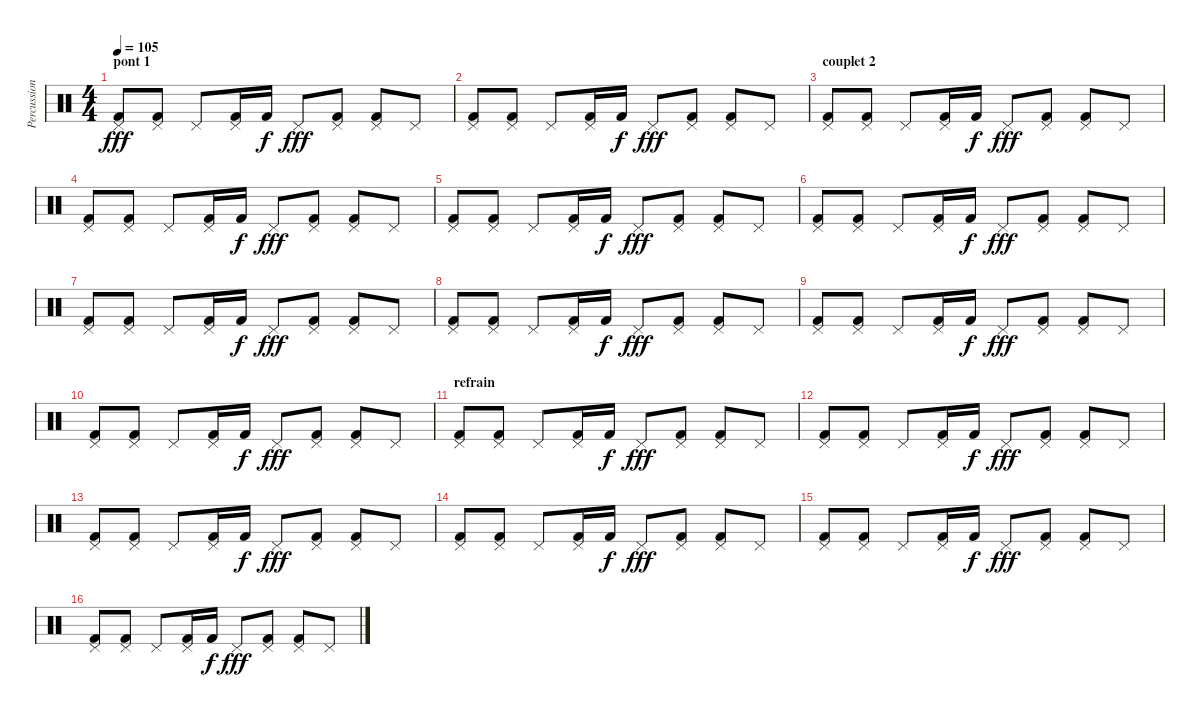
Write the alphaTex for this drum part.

\track ("Percussions" "Percussion") {instrument percussion}
\staff {score}
\articulation defaults
\ts (4 4)
\section ("" "pont 1")
\tempo 105
\clef neutral
\ks c
("Pedal Hi-Hat (hit)" "Kick (hit) 2").8{dy fff} ("Pedal Hi-Hat (hit)" "Kick (hit) 2").8 "Pedal Hi-Hat (hit)".8 ("Pedal Hi-Hat (hit)" "Kick (hit) 2").16 "Kick (hit) 2".16{dy f} "Pedal Hi-Hat (hit)".8{dy fff} ("Pedal Hi-Hat (hit)" "Kick (hit) 2").8 ("Pedal Hi-Hat (hit)" "Kick (hit) 2").8 "Pedal Hi-Hat (hit)".8 |
("Pedal Hi-Hat (hit)" "Kick (hit) 2").8 ("Pedal Hi-Hat (hit)" "Kick (hit) 2").8 "Pedal Hi-Hat (hit)".8 ("Pedal Hi-Hat (hit)" "Kick (hit) 2").16 "Kick (hit) 2".16{dy f} "Pedal Hi-Hat (hit)".8{dy fff} ("Pedal Hi-Hat (hit)" "Kick (hit) 2").8 ("Pedal Hi-Hat (hit)" "Kick (hit) 2").8 "Pedal Hi-Hat (hit)".8 |
\section ("" "couplet 2")
("Pedal Hi-Hat (hit)" "Kick (hit) 2").8 ("Pedal Hi-Hat (hit)" "Kick (hit) 2").8 "Pedal Hi-Hat (hit)".8 ("Pedal Hi-Hat (hit)" "Kick (hit) 2").16 "Kick (hit) 2".16{dy f} "Pedal Hi-Hat (hit)".8{dy fff} ("Pedal Hi-Hat (hit)" "Kick (hit) 2").8 ("Pedal Hi-Hat (hit)" "Kick (hit) 2").8 "Pedal Hi-Hat (hit)".8 |
("Pedal Hi-Hat (hit)" "Kick (hit) 2").8 ("Pedal Hi-Hat (hit)" "Kick (hit) 2").8 "Pedal Hi-Hat (hit)".8 ("Pedal Hi-Hat (hit)" "Kick (hit) 2").16 "Kick (hit) 2".16{dy f} "Pedal Hi-Hat (hit)".8{dy fff} ("Pedal Hi-Hat (hit)" "Kick (hit) 2").8 ("Pedal Hi-Hat (hit)" "Kick (hit) 2").8 "Pedal Hi-Hat (hit)".8 |
("Pedal Hi-Hat (hit)" "Kick (hit) 2").8 ("Pedal Hi-Hat (hit)" "Kick (hit) 2").8 "Pedal Hi-Hat (hit)".8 ("Pedal Hi-Hat (hit)" "Kick (hit) 2").16 "Kick (hit) 2".16{dy f} "Pedal Hi-Hat (hit)".8{dy fff} ("Pedal Hi-Hat (hit)" "Kick (hit) 2").8 ("Pedal Hi-Hat (hit)" "Kick (hit) 2").8 "Pedal Hi-Hat (hit)".8 |
("Pedal Hi-Hat (hit)" "Kick (hit) 2").8 ("Pedal Hi-Hat (hit)" "Kick (hit) 2").8 "Pedal Hi-Hat (hit)".8 ("Pedal Hi-Hat (hit)" "Kick (hit) 2").16 "Kick (hit) 2".16{dy f} "Pedal Hi-Hat (hit)".8{dy fff} ("Pedal Hi-Hat (hit)" "Kick (hit) 2").8 ("Pedal Hi-Hat (hit)" "Kick (hit) 2").8 "Pedal Hi-Hat (hit)".8 |
("Pedal Hi-Hat (hit)" "Kick (hit) 2").8 ("Pedal Hi-Hat (hit)" "Kick (hit) 2").8 "Pedal Hi-Hat (hit)".8 ("Pedal Hi-Hat (hit)" "Kick (hit) 2").16 "Kick (hit) 2".16{dy f} "Pedal Hi-Hat (hit)".8{dy fff} ("Pedal Hi-Hat (hit)" "Kick (hit) 2").8 ("Pedal Hi-Hat (hit)" "Kick (hit) 2").8 "Pedal Hi-Hat (hit)".8 |
("Pedal Hi-Hat (hit)" "Kick (hit) 2").8 ("Pedal Hi-Hat (hit)" "Kick (hit) 2").8 "Pedal Hi-Hat (hit)".8 ("Pedal Hi-Hat (hit)" "Kick (hit) 2").16 "Kick (hit) 2".16{dy f} "Pedal Hi-Hat (hit)".8{dy fff} ("Pedal Hi-Hat (hit)" "Kick (hit) 2").8 ("Pedal Hi-Hat (hit)" "Kick (hit) 2").8 "Pedal Hi-Hat (hit)".8 |
("Pedal Hi-Hat (hit)" "Kick (hit) 2").8 ("Pedal Hi-Hat (hit)" "Kick (hit) 2").8 "Pedal Hi-Hat (hit)".8 ("Pedal Hi-Hat (hit)" "Kick (hit) 2").16 "Kick (hit) 2".16{dy f} "Pedal Hi-Hat (hit)".8{dy fff} ("Pedal Hi-Hat (hit)" "Kick (hit) 2").8 ("Pedal Hi-Hat (hit)" "Kick (hit) 2").8 "Pedal Hi-Hat (hit)".8 |
("Pedal Hi-Hat (hit)" "Kick (hit) 2").8 ("Pedal Hi-Hat (hit)" "Kick (hit) 2").8 "Pedal Hi-Hat (hit)".8 ("Pedal Hi-Hat (hit)" "Kick (hit) 2").16 "Kick (hit) 2".16{dy f} "Pedal Hi-Hat (hit)".8{dy fff} ("Pedal Hi-Hat (hit)" "Kick (hit) 2").8 ("Pedal Hi-Hat (hit)" "Kick (hit) 2").8 "Pedal Hi-Hat (hit)".8 |
\section ("" "refrain")
("Pedal Hi-Hat (hit)" "Kick (hit) 2").8 ("Pedal Hi-Hat (hit)" "Kick (hit) 2").8 "Pedal Hi-Hat (hit)".8 ("Pedal Hi-Hat (hit)" "Kick (hit) 2").16 "Kick (hit) 2".16{dy f} "Pedal Hi-Hat (hit)".8{dy fff} ("Pedal Hi-Hat (hit)" "Kick (hit) 2").8 ("Pedal Hi-Hat (hit)" "Kick (hit) 2").8 "Pedal Hi-Hat (hit)".8 |
("Pedal Hi-Hat (hit)" "Kick (hit) 2").8 ("Pedal Hi-Hat (hit)" "Kick (hit) 2").8 "Pedal Hi-Hat (hit)".8 ("Pedal Hi-Hat (hit)" "Kick (hit) 2").16 "Kick (hit) 2".16{dy f} "Pedal Hi-Hat (hit)".8{dy fff} ("Pedal Hi-Hat (hit)" "Kick (hit) 2").8 ("Pedal Hi-Hat (hit)" "Kick (hit) 2").8 "Pedal Hi-Hat (hit)".8 |
("Pedal Hi-Hat (hit)" "Kick (hit) 2").8 ("Pedal Hi-Hat (hit)" "Kick (hit) 2").8 "Pedal Hi-Hat (hit)".8 ("Pedal Hi-Hat (hit)" "Kick (hit) 2").16 "Kick (hit) 2".16{dy f} "Pedal Hi-Hat (hit)".8{dy fff} ("Pedal Hi-Hat (hit)" "Kick (hit) 2").8 ("Pedal Hi-Hat (hit)" "Kick (hit) 2").8 "Pedal Hi-Hat (hit)".8 |
("Pedal Hi-Hat (hit)" "Kick (hit) 2").8 ("Pedal Hi-Hat (hit)" "Kick (hit) 2").8 "Pedal Hi-Hat (hit)".8 ("Pedal Hi-Hat (hit)" "Kick (hit) 2").16 "Kick (hit) 2".16{dy f} "Pedal Hi-Hat (hit)".8{dy fff} ("Pedal Hi-Hat (hit)" "Kick (hit) 2").8 ("Pedal Hi-Hat (hit)" "Kick (hit) 2").8 "Pedal Hi-Hat (hit)".8 |
("Pedal Hi-Hat (hit)" "Kick (hit) 2").8 ("Pedal Hi-Hat (hit)" "Kick (hit) 2").8 "Pedal Hi-Hat (hit)".8 ("Pedal Hi-Hat (hit)" "Kick (hit) 2").16 "Kick (hit) 2".16{dy f} "Pedal Hi-Hat (hit)".8{dy fff} ("Pedal Hi-Hat (hit)" "Kick (hit) 2").8 ("Pedal Hi-Hat (hit)" "Kick (hit) 2").8 "Pedal Hi-Hat (hit)".8 |
("Pedal Hi-Hat (hit)" "Kick (hit) 2").8 ("Pedal Hi-Hat (hit)" "Kick (hit) 2").8 "Pedal Hi-Hat (hit)".8 ("Pedal Hi-Hat (hit)" "Kick (hit) 2").16 "Kick (hit) 2".16{dy f} "Pedal Hi-Hat (hit)".8{dy fff} ("Pedal Hi-Hat (hit)" "Kick (hit) 2").8 ("Pedal Hi-Hat (hit)" "Kick (hit) 2").8 "Pedal Hi-Hat (hit)".8
